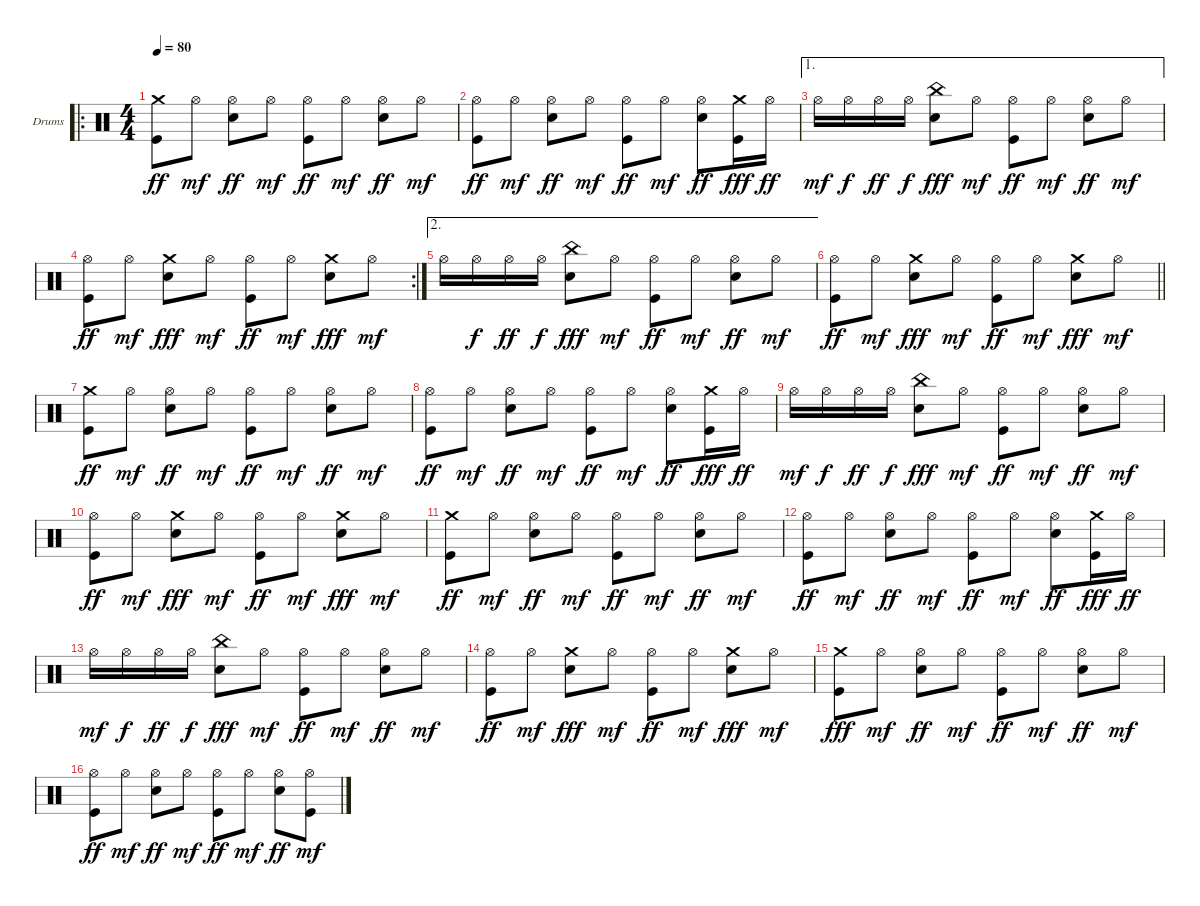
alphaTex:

\bracketExtendMode groupsimilarinstruments
\firstSystemTrackNameOrientation horizontal
\otherSystemsTrackNameOrientation horizontal
\track ("Drumkit" "Drums") {instrument percussion}
\staff {score}
\articulation defaults
\ro
\ts (4 4)
\tempo 80
\clef neutral
\ks c
("Crash medium (hit)" "Kick (hit)").8{dy ff} "Hi-Hat (open)".8{dy mf} ("Hi-Hat (open)" "Snare (hit) 2").8{dy ff} "Hi-Hat (open)".8{dy mf} ("Hi-Hat (open)" "Kick (hit)").8{dy ff} "Hi-Hat (open)".8{dy mf} ("Hi-Hat (open)" "Snare (hit) 2").8{dy ff} "Hi-Hat (open)".8{dy mf} |
("Hi-Hat (open)" "Kick (hit)").8{dy ff} "Hi-Hat (open)".8{dy mf} ("Hi-Hat (open)" "Snare (hit) 2").8{dy ff} "Hi-Hat (open)".8{dy mf} ("Hi-Hat (open)" "Kick (hit)").8{dy ff} "Hi-Hat (open)".8{dy mf} ("Hi-Hat (open)" "Snare (hit) 2").8{dy ff} ("Crash medium (hit)" "Kick (hit)").16{dy fff} "Hi-Hat (open)".16{dy ff} |
\ae 1 "Hi-Hat (open)".16{dy mf} "Hi-Hat (open)".16{dy f} "Hi-Hat (open)".16{dy ff} "Hi-Hat (open)".16{dy f}
("China (hit)" "Snare (hit) 2").8{dy fff} "Hi-Hat (open)".8{dy mf} ("Hi-Hat (open)" "Kick (hit)").8{dy ff} "Hi-Hat (open)".8{dy mf} ("Hi-Hat (open)" "Snare (hit) 2").8{dy ff} "Hi-Hat (open)".8{dy mf} |
\rc 2
("Hi-Hat (open)" "Kick (hit)").8{dy ff} "Hi-Hat (open)".8{dy mf} ("Crash medium (hit)" "Snare (hit) 2").8{dy fff} "Hi-Hat (open)".8{dy mf} ("Hi-Hat (open)" "Kick (hit)").8{dy ff} "Hi-Hat (open)".8{dy mf} ("Crash medium (hit)" "Snare (hit) 2").8{dy fff} "Hi-Hat (open)".8{dy mf} |
\ae 2 "Hi-Hat (open)".16 "Hi-Hat (open)".16{dy f} "Hi-Hat (open)".16{dy ff} "Hi-Hat (open)".16{dy f}
("China (hit)" "Snare (hit) 2").8{dy fff} "Hi-Hat (open)".8{dy mf} ("Hi-Hat (open)" "Kick (hit)").8{dy ff} "Hi-Hat (open)".8{dy mf} ("Hi-Hat (open)" "Snare (hit) 2").8{dy ff} "Hi-Hat (open)".8{dy mf} |
\barLineRight lightlight
("Hi-Hat (open)" "Kick (hit)").8{dy ff} "Hi-Hat (open)".8{dy mf} ("Crash medium (hit)" "Snare (hit) 2").8{dy fff} "Hi-Hat (open)".8{dy mf} ("Hi-Hat (open)" "Kick (hit)").8{dy ff} "Hi-Hat (open)".8{dy mf} ("Crash medium (hit)" "Snare (hit) 2").8{dy fff} "Hi-Hat (open)".8{dy mf} |
("Crash medium (hit)" "Kick (hit)").8{dy ff} "Hi-Hat (open)".8{dy mf} ("Hi-Hat (open)" "Snare (hit) 2").8{dy ff} "Hi-Hat (open)".8{dy mf} ("Hi-Hat (open)" "Kick (hit)").8{dy ff} "Hi-Hat (open)".8{dy mf} ("Hi-Hat (open)" "Snare (hit) 2").8{dy ff} "Hi-Hat (open)".8{dy mf} |
("Hi-Hat (open)" "Kick (hit)").8{dy ff} "Hi-Hat (open)".8{dy mf} ("Hi-Hat (open)" "Snare (hit) 2").8{dy ff} "Hi-Hat (open)".8{dy mf} ("Hi-Hat (open)" "Kick (hit)").8{dy ff} "Hi-Hat (open)".8{dy mf} ("Hi-Hat (open)" "Snare (hit) 2").8{dy ff} ("Crash medium (hit)" "Kick (hit)").16{dy fff} "Hi-Hat (open)".16{dy ff} |
"Hi-Hat (open)".16{dy mf} "Hi-Hat (open)".16{dy f} "Hi-Hat (open)".16{dy ff} "Hi-Hat (open)".16{dy f} ("China (hit)" "Snare (hit) 2").8{dy fff} "Hi-Hat (open)".8{dy mf} ("Hi-Hat (open)" "Kick (hit)").8{dy ff} "Hi-Hat (open)".8{dy mf} ("Hi-Hat (open)" "Snare (hit) 2").8{dy ff} "Hi-Hat (open)".8{dy mf} |
("Hi-Hat (open)" "Kick (hit)").8{dy ff} "Hi-Hat (open)".8{dy mf} ("Crash medium (hit)" "Snare (hit) 2").8{dy fff} "Hi-Hat (open)".8{dy mf} ("Hi-Hat (open)" "Kick (hit)").8{dy ff} "Hi-Hat (open)".8{dy mf} ("Crash medium (hit)" "Snare (hit) 2").8{dy fff} "Hi-Hat (open)".8{dy mf} |
("Crash medium (hit)" "Kick (hit)").8{dy ff} "Hi-Hat (open)".8{dy mf} ("Hi-Hat (open)" "Snare (hit) 2").8{dy ff} "Hi-Hat (open)".8{dy mf} ("Hi-Hat (open)" "Kick (hit)").8{dy ff} "Hi-Hat (open)".8{dy mf} ("Hi-Hat (open)" "Snare (hit) 2").8{dy ff} "Hi-Hat (open)".8{dy mf} |
("Hi-Hat (open)" "Kick (hit)").8{dy ff} "Hi-Hat (open)".8{dy mf} ("Hi-Hat (open)" "Snare (hit) 2").8{dy ff} "Hi-Hat (open)".8{dy mf} ("Hi-Hat (open)" "Kick (hit)").8{dy ff} "Hi-Hat (open)".8{dy mf} ("Hi-Hat (open)" "Snare (hit) 2").8{dy ff} ("Crash medium (hit)" "Kick (hit)").16{dy fff} "Hi-Hat (open)".16{dy ff} |
"Hi-Hat (open)".16{dy mf} "Hi-Hat (open)".16{dy f} "Hi-Hat (open)".16{dy ff} "Hi-Hat (open)".16{dy f} ("China (hit)" "Snare (hit) 2").8{dy fff} "Hi-Hat (open)".8{dy mf} ("Hi-Hat (open)" "Kick (hit)").8{dy ff} "Hi-Hat (open)".8{dy mf} ("Hi-Hat (open)" "Snare (hit) 2").8{dy ff} "Hi-Hat (open)".8{dy mf} |
("Hi-Hat (open)" "Kick (hit)").8{dy ff} "Hi-Hat (open)".8{dy mf} ("Crash medium (hit)" "Snare (hit) 2").8{dy fff} "Hi-Hat (open)".8{dy mf} ("Hi-Hat (open)" "Kick (hit)").8{dy ff} "Hi-Hat (open)".8{dy mf} ("Crash medium (hit)" "Snare (hit) 2").8{dy fff} "Hi-Hat (open)".8{dy mf} |
("Crash medium (hit)" "Kick (hit)").8{dy fff} "Hi-Hat (open)".8{dy mf} ("Hi-Hat (open)" "Snare (hit) 2").8{dy ff} "Hi-Hat (open)".8{dy mf} ("Hi-Hat (open)" "Kick (hit)").8{dy ff} "Hi-Hat (open)".8{dy mf} ("Hi-Hat (open)" "Snare (hit) 2").8{dy ff} "Hi-Hat (open)".8{dy mf} |
("Hi-Hat (open)" "Kick (hit)").8{dy ff} "Hi-Hat (open)".8{dy mf} ("Hi-Hat (open)" "Snare (hit) 2").8{dy ff} "Hi-Hat (open)".8{dy mf} ("Hi-Hat (open)" "Kick (hit)").8{dy ff} "Hi-Hat (open)".8{dy mf} ("Hi-Hat (open)" "Snare (hit) 2").8{dy ff} ("Hi-Hat (open)" "Kick (hit)").8{dy mf}
